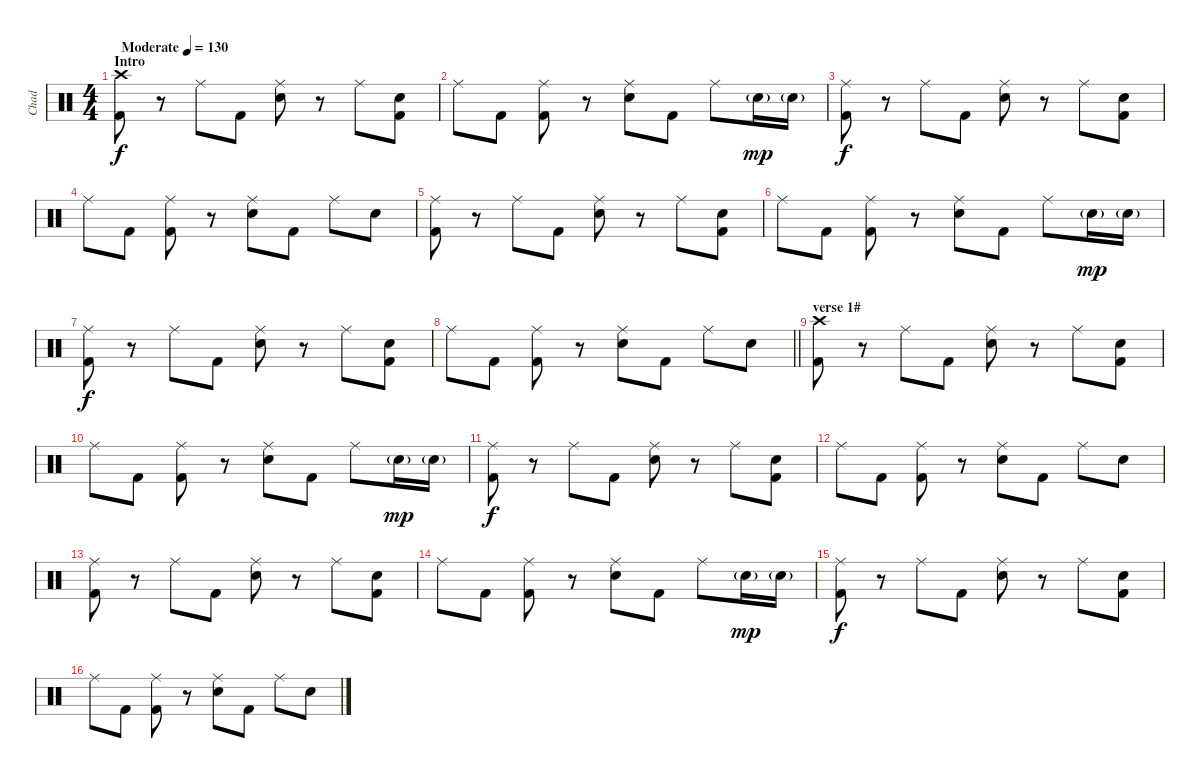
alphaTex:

\track ("Chad" "Chad") {instrument percussion}
\staff {score}
\articulation defaults
\ts (4 4)
\section ("" "Intro")
\tempo (130 "Moderate")
\clef neutral
\ks c
("Crash high (hit)" "Kick (hit) 2").8{dy f} r.8 "Ride (middle)".8 "Kick (hit) 2".8 ("Ride (middle)" "Electric Snare (hit)").8 r.8 "Ride (middle)".8 ("Electric Snare (hit)" "Kick (hit) 2").8 |
"Ride (middle)".8 "Kick (hit) 2".8 ("Ride (middle)" "Kick (hit) 2").8 r.8 ("Ride (middle)" "Electric Snare (hit)").8 "Kick (hit) 2".8 "Ride (middle)".8 "Electric Snare (hit)"{g}.16{dy mp} "Electric Snare (hit)"{g}.16 |
("Ride (middle)" "Kick (hit) 2").8{dy f} r.8 "Ride (middle)".8 "Kick (hit) 2".8 ("Ride (middle)" "Electric Snare (hit)").8 r.8 "Ride (middle)".8 ("Electric Snare (hit)" "Kick (hit) 2").8 |
"Ride (middle)".8 "Kick (hit) 2".8 ("Ride (middle)" "Kick (hit) 2").8 r.8 ("Ride (middle)" "Electric Snare (hit)").8 "Kick (hit) 2".8 "Ride (middle)".8 "Electric Snare (hit)".8 |
("Ride (middle)" "Kick (hit) 2").8 r.8 "Ride (middle)".8 "Kick (hit) 2".8 ("Ride (middle)" "Electric Snare (hit)").8 r.8 "Ride (middle)".8 ("Electric Snare (hit)" "Kick (hit) 2").8 |
"Ride (middle)".8 "Kick (hit) 2".8 ("Ride (middle)" "Kick (hit) 2").8 r.8 ("Ride (middle)" "Electric Snare (hit)").8 "Kick (hit) 2".8 "Ride (middle)".8 "Electric Snare (hit)"{g}.16{dy mp} "Electric Snare (hit)"{g}.16 |
("Ride (middle)" "Kick (hit) 2").8{dy f} r.8 "Ride (middle)".8 "Kick (hit) 2".8 ("Ride (middle)" "Electric Snare (hit)").8 r.8 "Ride (middle)".8 ("Electric Snare (hit)" "Kick (hit) 2").8 |
\barLineRight lightlight "Ride (middle)".8 "Kick (hit) 2".8
("Ride (middle)" "Kick (hit) 2").8 r.8 ("Ride (middle)" "Electric Snare (hit)").8 "Kick (hit) 2".8 "Ride (middle)".8 "Electric Snare (hit)".8 |
\section ("" "verse 1#")
("Crash high (hit)" "Kick (hit) 2").8 r.8 "Ride (middle)".8 "Kick (hit) 2".8 ("Ride (middle)" "Electric Snare (hit)").8 r.8 "Ride (middle)".8 ("Electric Snare (hit)" "Kick (hit) 2").8 |
"Ride (middle)".8 "Kick (hit) 2".8 ("Ride (middle)" "Kick (hit) 2").8 r.8 ("Ride (middle)" "Electric Snare (hit)").8 "Kick (hit) 2".8 "Ride (middle)".8 "Electric Snare (hit)"{g}.16{dy mp} "Electric Snare (hit)"{g}.16 |
("Ride (middle)" "Kick (hit) 2").8{dy f} r.8 "Ride (middle)".8 "Kick (hit) 2".8 ("Ride (middle)" "Electric Snare (hit)").8 r.8 "Ride (middle)".8 ("Electric Snare (hit)" "Kick (hit) 2").8 |
"Ride (middle)".8 "Kick (hit) 2".8 ("Ride (middle)" "Kick (hit) 2").8 r.8 ("Ride (middle)" "Electric Snare (hit)").8 "Kick (hit) 2".8 "Ride (middle)".8 "Electric Snare (hit)".8 |
("Ride (middle)" "Kick (hit) 2").8 r.8 "Ride (middle)".8 "Kick (hit) 2".8 ("Ride (middle)" "Electric Snare (hit)").8 r.8 "Ride (middle)".8 ("Electric Snare (hit)" "Kick (hit) 2").8 |
"Ride (middle)".8 "Kick (hit) 2".8 ("Ride (middle)" "Kick (hit) 2").8 r.8 ("Ride (middle)" "Electric Snare (hit)").8 "Kick (hit) 2".8 "Ride (middle)".8 "Electric Snare (hit)"{g}.16{dy mp} "Electric Snare (hit)"{g}.16 |
("Ride (middle)" "Kick (hit) 2").8{dy f} r.8 "Ride (middle)".8 "Kick (hit) 2".8 ("Ride (middle)" "Electric Snare (hit)").8 r.8 "Ride (middle)".8 ("Electric Snare (hit)" "Kick (hit) 2").8 |
"Ride (middle)".8 "Kick (hit) 2".8 ("Ride (middle)" "Kick (hit) 2").8 r.8 ("Ride (middle)" "Electric Snare (hit)").8 "Kick (hit) 2".8 "Ride (middle)".8 "Electric Snare (hit)".8
